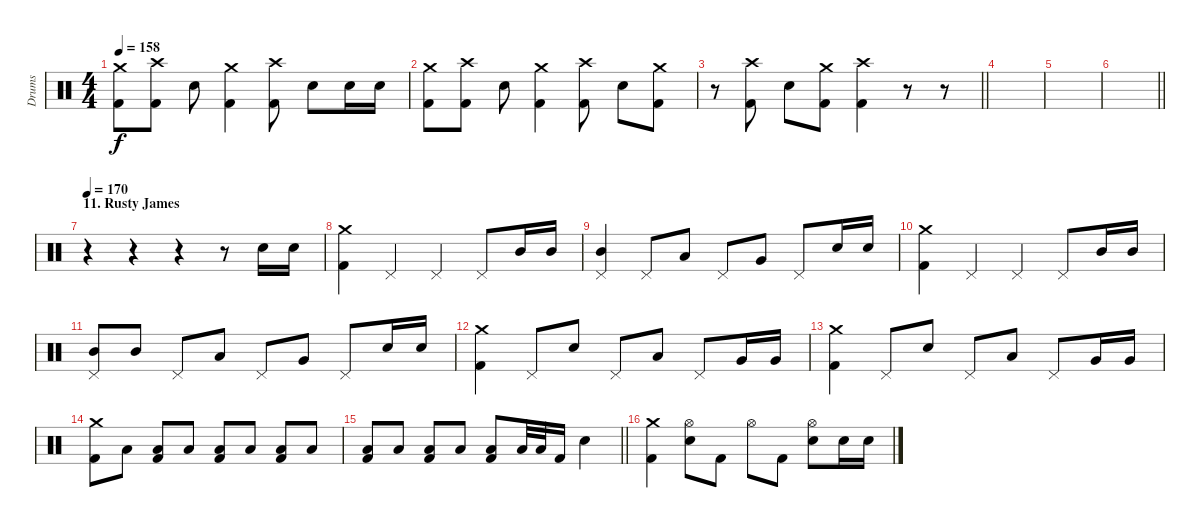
\track ("Drums" "Drums") {instrument percussion}
\staff {score}
\articulation defaults
\ts (4 4)
\tempo 158
\clef neutral
\ks c
("Crash medium (hit)" "Kick (hit) 2").8{dy f} ("Crash high (hit)" "Kick (hit) 2").8 "Electric Snare (hit)".8 ("Crash medium (hit)" "Kick (hit) 2").4 ("Crash high (hit)" "Kick (hit) 2").8 "Electric Snare (hit)".8 "Electric Snare (hit)".16 "Electric Snare (hit)".16 |
("Crash medium (hit)" "Kick (hit) 2").8 ("Crash high (hit)" "Kick (hit) 2").8 "Electric Snare (hit)".8 ("Crash medium (hit)" "Kick (hit) 2").4 ("Crash high (hit)" "Kick (hit) 2").8 "Electric Snare (hit)".8 ("Crash medium (hit)" "Kick (hit) 2").8 |
\barLineRight lightlight
r.8 ("Crash high (hit)" "Kick (hit) 2").8 "Electric Snare (hit)".8 ("Crash medium (hit)" "Kick (hit) 2").8 ("Crash high (hit)" "Kick (hit) 2").4 r.8 r.8 |
|
|
\barLineRight lightlight
|
\section ("" "11. Rusty James")
\tempo 170
r.4{volume 14 balance 8} r.4 r.4 r.8 "Electric Snare (hit)".16 "Electric Snare (hit)".16 |
("Crash medium (hit)" "Kick (hit) 2").4 "Pedal Hi-Hat (hit)".4 "Pedal Hi-Hat (hit)".4 "Pedal Hi-Hat (hit)".8 "Mid Tom (hit)".16 "Mid Tom (hit)".16 |
("Pedal Hi-Hat (hit)" "Mid Tom (hit)").4 "Pedal Hi-Hat (hit)".8 "Low Tom (hit)".8 "Pedal Hi-Hat (hit)".8 "Very Low Tom (hit)".8 "Pedal Hi-Hat (hit)".8 "Electric Snare (hit)".16 "Electric Snare (hit)".16 |
("Crash medium (hit)" "Kick (hit) 2").4 "Pedal Hi-Hat (hit)".4 "Pedal Hi-Hat (hit)".4 "Pedal Hi-Hat (hit)".8 "Mid Tom (hit)".16 "Mid Tom (hit)".16 |
("Pedal Hi-Hat (hit)" "Mid Tom (hit)").8 "Mid Tom (hit)".8 "Pedal Hi-Hat (hit)".8 "Low Tom (hit)".8 "Pedal Hi-Hat (hit)".8 "Very Low Tom (hit)".8 "Pedal Hi-Hat (hit)".8 "Electric Snare (hit)".16 "Electric Snare (hit)".16 |
("Crash medium (hit)" "Kick (hit) 2").4 "Pedal Hi-Hat (hit)".8 "Electric Snare (hit)".8 "Pedal Hi-Hat (hit)".8 "Low Tom (hit)".8 "Pedal Hi-Hat (hit)".8 "Very Low Tom (hit)".16 "Very Low Tom (hit)".16 |
("Crash medium (hit)" "Kick (hit) 2").4 "Pedal Hi-Hat (hit)".8 "Electric Snare (hit)".8 "Pedal Hi-Hat (hit)".8 "Low Tom (hit)".8 "Pedal Hi-Hat (hit)".8 "Very Low Tom (hit)".16 "Very Low Tom (hit)".16 |
("Crash medium (hit)" "Kick (hit) 2").8 "Low Floor Tom (hit)".8 ("Low Floor Tom (hit)" "Kick (hit) 2").8 "Low Floor Tom (hit)".8 ("Low Floor Tom (hit)" "Kick (hit) 2").8 "Low Floor Tom (hit)".8 ("Low Floor Tom (hit)" "Kick (hit) 2").8 "Low Floor Tom (hit)".8 |
\barLineRight lightlight
("Low Floor Tom (hit)" "Kick (hit) 2").8 "Low Floor Tom (hit)".8 ("Low Floor Tom (hit)" "Kick (hit) 2").8 "Low Floor Tom (hit)".8 ("Low Floor Tom (hit)" "Kick (hit) 2").8 "Low Tom (hit)".32 "Low Tom (hit)".32 "Kick (hit) 2".16 "Electric Snare (hit)".4 |
("Crash medium (hit)" "Kick (hit) 2").4 ("Hi-Hat (open)" "Electric Snare (hit)").8 "Kick (hit) 2".8 "Hi-Hat (open)".8 "Kick (hit) 2".8 ("Hi-Hat (open)" "Electric Snare (hit)").8 "Electric Snare (hit)".16 "Electric Snare (hit)".16
